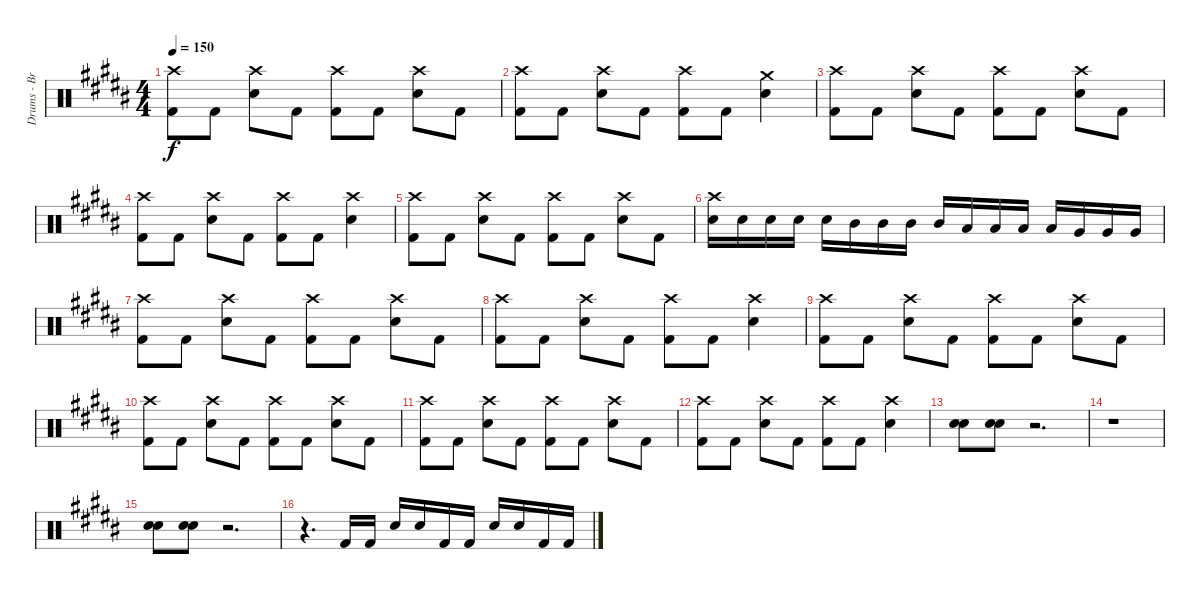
\track ("Drums - Brandon" "Drums - Br") {instrument percussion}
\staff {score}
\articulation defaults
\ts (4 4)
\tempo 150
\clef neutral
\ks b
("Crash high (hit)" "Kick (hit) 2").8{dy f} "Kick (hit) 2".8 ("Crash high (hit)" "Snare (hit) 2").8 "Kick (hit) 2".8 ("Crash high (hit)" "Kick (hit) 2").8 "Kick (hit) 2".8 ("Crash high (hit)" "Snare (hit) 2").8 "Kick (hit) 2".8 |
("Crash high (hit)" "Kick (hit) 2").8 "Kick (hit) 2".8 ("Crash high (hit)" "Snare (hit) 2").8 "Kick (hit) 2".8 ("Crash high (hit)" "Kick (hit) 2").8 "Kick (hit) 2".8 ("Crash medium (hit)" "Snare (hit) 2").4 |
("Crash high (hit)" "Kick (hit) 2").8 "Kick (hit) 2".8 ("Crash high (hit)" "Snare (hit) 2").8 "Kick (hit) 2".8 ("Crash high (hit)" "Kick (hit) 2").8 "Kick (hit) 2".8 ("Crash high (hit)" "Snare (hit) 2").8 "Kick (hit) 2".8 |
("Crash high (hit)" "Kick (hit) 2").8 "Kick (hit) 2".8 ("Crash high (hit)" "Snare (hit) 2").8 "Kick (hit) 2".8 ("Crash high (hit)" "Kick (hit) 2").8 "Kick (hit) 2".8 ("Crash high (hit)" "Snare (hit) 2").4 |
("Crash high (hit)" "Kick (hit) 2").8 "Kick (hit) 2".8 ("Crash high (hit)" "Snare (hit) 2").8 "Kick (hit) 2".8 ("Crash high (hit)" "Kick (hit) 2").8 "Kick (hit) 2".8 ("Crash high (hit)" "Snare (hit) 2").8 "Kick (hit) 2".8 |
("Crash high (hit)" "Snare (hit) 2").16 "Snare (hit) 2".16 "Snare (hit) 2".16 "Snare (hit) 2".16 "Snare (hit) 2".16 "Mid Tom (hit)".16 "Mid Tom (hit)".16 "Mid Tom (hit)".16 "Mid Tom (hit)".16 "Low Tom (hit)".16 "Low Tom (hit)".16 "Low Tom (hit)".16 "Low Tom (hit)".16 "Very Low Tom (hit)".16 "Very Low Tom (hit)".16 "Very Low Tom (hit)".16 |
("Crash high (hit)" "Kick (hit) 2").8 "Kick (hit) 2".8 ("Crash high (hit)" "Snare (hit) 2").8 "Kick (hit) 2".8 ("Crash high (hit)" "Kick (hit) 2").8 "Kick (hit) 2".8 ("Crash high (hit)" "Snare (hit) 2").8 "Kick (hit) 2".8 |
("Crash high (hit)" "Kick (hit) 2").8 "Kick (hit) 2".8 ("Crash high (hit)" "Snare (hit) 2").8 "Kick (hit) 2".8 ("Crash high (hit)" "Kick (hit) 2").8 "Kick (hit) 2".8 ("Crash high (hit)" "Snare (hit) 2").4 |
("Crash high (hit)" "Kick (hit) 2").8 "Kick (hit) 2".8 ("Crash high (hit)" "Snare (hit) 2").8 "Kick (hit) 2".8 ("Crash high (hit)" "Kick (hit) 2").8 "Kick (hit) 2".8 ("Crash high (hit)" "Snare (hit) 2").8 "Kick (hit) 2".8 |
("Crash high (hit)" "Kick (hit) 2").8 "Kick (hit) 2".8 ("Crash high (hit)" "Snare (hit) 2").8 "Kick (hit) 2".8 ("Crash high (hit)" "Kick (hit) 2").8 "Kick (hit) 2".8 ("Crash high (hit)" "Snare (hit) 2").8 "Kick (hit) 2".8 |
("Crash high (hit)" "Kick (hit) 2").8 "Kick (hit) 2".8 ("Crash high (hit)" "Snare (hit) 2").8 "Kick (hit) 2".8 ("Crash high (hit)" "Kick (hit) 2").8 "Kick (hit) 2".8 ("Crash high (hit)" "Snare (hit) 2").8 "Kick (hit) 2".8 |
("Crash high (hit)" "Kick (hit) 2").8 "Kick (hit) 2".8 ("Crash high (hit)" "Snare (hit) 2").8 "Kick (hit) 2".8 ("Crash high (hit)" "Kick (hit) 2").8 "Kick (hit) 2".8 ("Crash high (hit)" "Snare (hit) 2").4 |
("Snare (hit) 2" "Electric Snare (hit)").8 ("Snare (hit) 2" "Electric Snare (hit)").8 r.2{d} |
r.1 |
("Snare (hit) 2" "Electric Snare (hit)").8 ("Snare (hit) 2" "Electric Snare (hit)").8 r.2{d} |
r.4{d} "Kick (hit) 2".16 "Kick (hit) 2".16 "Electric Snare (hit)".16 "Electric Snare (hit)".16 "Kick (hit) 2".16 "Kick (hit) 2".16 "Electric Snare (hit)".16 "Electric Snare (hit)".16 "Kick (hit) 2".16 "Kick (hit) 2".16
